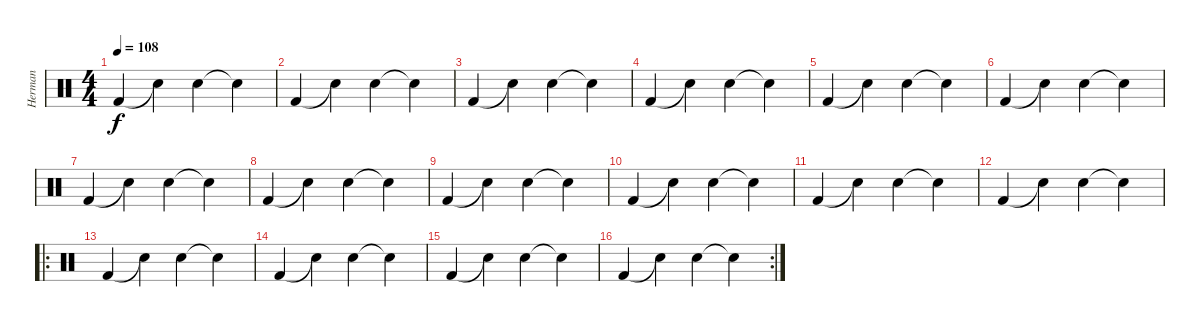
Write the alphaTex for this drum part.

\track ("Herman" "Herman") {instrument percussion}
\staff {score}
\articulation defaults
\ts (4 4)
\tempo 108
\clef neutral
\ks c "Kick (hit) 2".4{dy f} "Snare (hit)"{t}.4 "Snare (hit) 2".4 "Snare (hit)"{t}.4
|
"Kick (hit) 2".4 "Snare (hit)"{t}.4 "Snare (hit) 2".4 "Snare (hit)"{t}.4 |
"Kick (hit) 2".4 "Snare (hit)"{t}.4 "Snare (hit) 2".4 "Snare (hit)"{t}.4 |
"Kick (hit) 2".4 "Snare (hit)"{t}.4 "Snare (hit) 2".4 "Snare (hit)"{t}.4 |
"Kick (hit) 2".4 "Snare (hit)"{t}.4 "Snare (hit) 2".4 "Snare (hit)"{t}.4 |
"Kick (hit) 2".4 "Snare (hit)"{t}.4 "Snare (hit) 2".4 "Snare (hit)"{t}.4 |
"Kick (hit) 2".4 "Snare (hit)"{t}.4 "Snare (hit) 2".4 "Snare (hit)"{t}.4 |
"Kick (hit) 2".4 "Snare (hit)"{t}.4 "Snare (hit) 2".4 "Snare (hit)"{t}.4 |
"Kick (hit) 2".4 "Snare (hit)"{t}.4 "Snare (hit) 2".4 "Snare (hit)"{t}.4 |
"Kick (hit) 2".4 "Snare (hit)"{t}.4 "Snare (hit) 2".4 "Snare (hit)"{t}.4 |
"Kick (hit) 2".4 "Snare (hit)"{t}.4 "Snare (hit) 2".4 "Snare (hit)"{t}.4 |
"Kick (hit) 2".4 "Snare (hit)"{t}.4 "Snare (hit) 2".4 "Snare (hit)"{t}.4 |
\ro "Kick (hit) 2".4 "Snare (hit)"{t}.4 "Snare (hit) 2".4 "Snare (hit)"{t}.4
|
"Kick (hit) 2".4 "Snare (hit)"{t}.4 "Snare (hit) 2".4 "Snare (hit)"{t}.4 |
"Kick (hit) 2".4 "Snare (hit)"{t}.4 "Snare (hit) 2".4 "Snare (hit)"{t}.4 |
\rc 2 "Kick (hit) 2".4 "Snare (hit)"{t}.4 "Snare (hit) 2".4 "Snare (hit)"{t}.4
